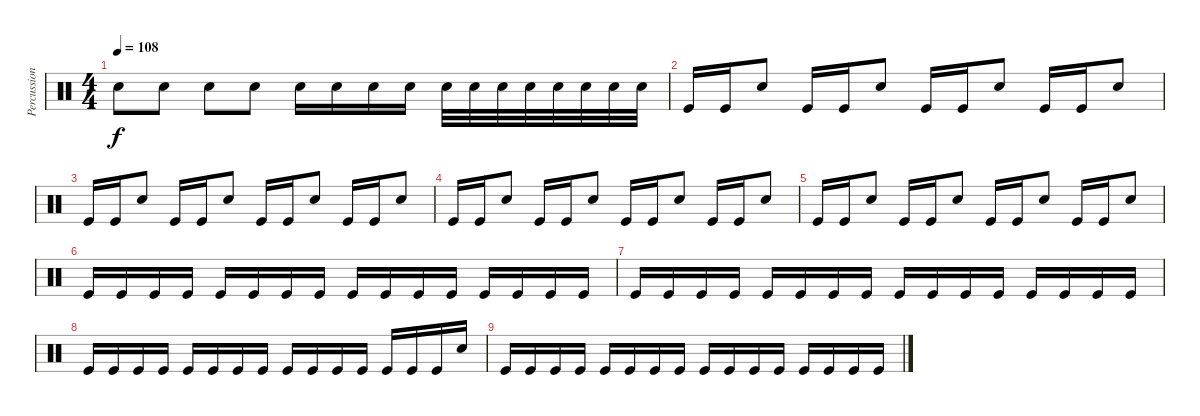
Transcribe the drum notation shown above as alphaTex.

\track ("Percussion" "Percussion") {instrument percussion}
\staff {score}
\articulation defaults
\ts (4 4)
\tempo 108
\clef neutral
\ks c "Snare (hit) 2".8{dy f} "Snare (hit) 2".8 "Snare (hit) 2".8 "Snare (hit) 2".8 "Snare (hit) 2".16 "Snare (hit) 2".16 "Snare (hit) 2".16 "Snare (hit) 2".16 "Snare (hit) 2".32 "Snare (hit) 2".32 "Snare (hit) 2".32 "Snare (hit) 2".32 "Snare (hit) 2".32 "Snare (hit) 2".32 "Snare (hit) 2".32 "Snare (hit) 2".32
|
"Kick (hit)".16 "Kick (hit)".16 "Snare (hit) 2".8 "Kick (hit)".16 "Kick (hit)".16 "Snare (hit) 2".8 "Kick (hit)".16 "Kick (hit)".16 "Snare (hit) 2".8 "Kick (hit)".16 "Kick (hit)".16 "Snare (hit) 2".8 |
"Kick (hit)".16 "Kick (hit)".16 "Snare (hit) 2".8 "Kick (hit)".16 "Kick (hit)".16 "Snare (hit) 2".8 "Kick (hit)".16 "Kick (hit)".16 "Snare (hit) 2".8 "Kick (hit)".16 "Kick (hit)".16 "Snare (hit) 2".8 |
"Kick (hit)".16 "Kick (hit)".16 "Snare (hit) 2".8 "Kick (hit)".16 "Kick (hit)".16 "Snare (hit) 2".8 "Kick (hit)".16 "Kick (hit)".16 "Snare (hit) 2".8 "Kick (hit)".16 "Kick (hit)".16 "Snare (hit) 2".8 |
"Kick (hit)".16 "Kick (hit)".16 "Snare (hit) 2".8 "Kick (hit)".16 "Kick (hit)".16 "Snare (hit) 2".8 "Kick (hit)".16 "Kick (hit)".16 "Snare (hit) 2".8 "Kick (hit)".16 "Kick (hit)".16 "Snare (hit) 2".8 |
"Kick (hit)".16 "Kick (hit)".16 "Kick (hit)".16 "Kick (hit)".16 "Kick (hit)".16 "Kick (hit)".16 "Kick (hit)".16 "Kick (hit)".16 "Kick (hit)".16 "Kick (hit)".16 "Kick (hit)".16 "Kick (hit)".16 "Kick (hit)".16 "Kick (hit)".16 "Kick (hit)".16 "Kick (hit)".16 |
"Kick (hit)".16 "Kick (hit)".16 "Kick (hit)".16 "Kick (hit)".16 "Kick (hit)".16 "Kick (hit)".16 "Kick (hit)".16 "Kick (hit)".16 "Kick (hit)".16 "Kick (hit)".16 "Kick (hit)".16 "Kick (hit)".16 "Kick (hit)".16 "Kick (hit)".16 "Kick (hit)".16 "Kick (hit)".16 |
"Kick (hit)".16 "Kick (hit)".16 "Kick (hit)".16 "Kick (hit)".16 "Kick (hit)".16 "Kick (hit)".16 "Kick (hit)".16 "Kick (hit)".16 "Kick (hit)".16 "Kick (hit)".16 "Kick (hit)".16 "Kick (hit)".16 "Kick (hit)".16 "Kick (hit)".16 "Kick (hit)".16 "Snare (hit)".16 |
"Kick (hit)".16 "Kick (hit)".16 "Kick (hit)".16 "Kick (hit)".16 "Kick (hit)".16 "Kick (hit)".16 "Kick (hit)".16 "Kick (hit)".16 "Kick (hit)".16 "Kick (hit)".16 "Kick (hit)".16 "Kick (hit)".16 "Kick (hit)".16 "Kick (hit)".16 "Kick (hit)".16 "Kick (hit)".16
